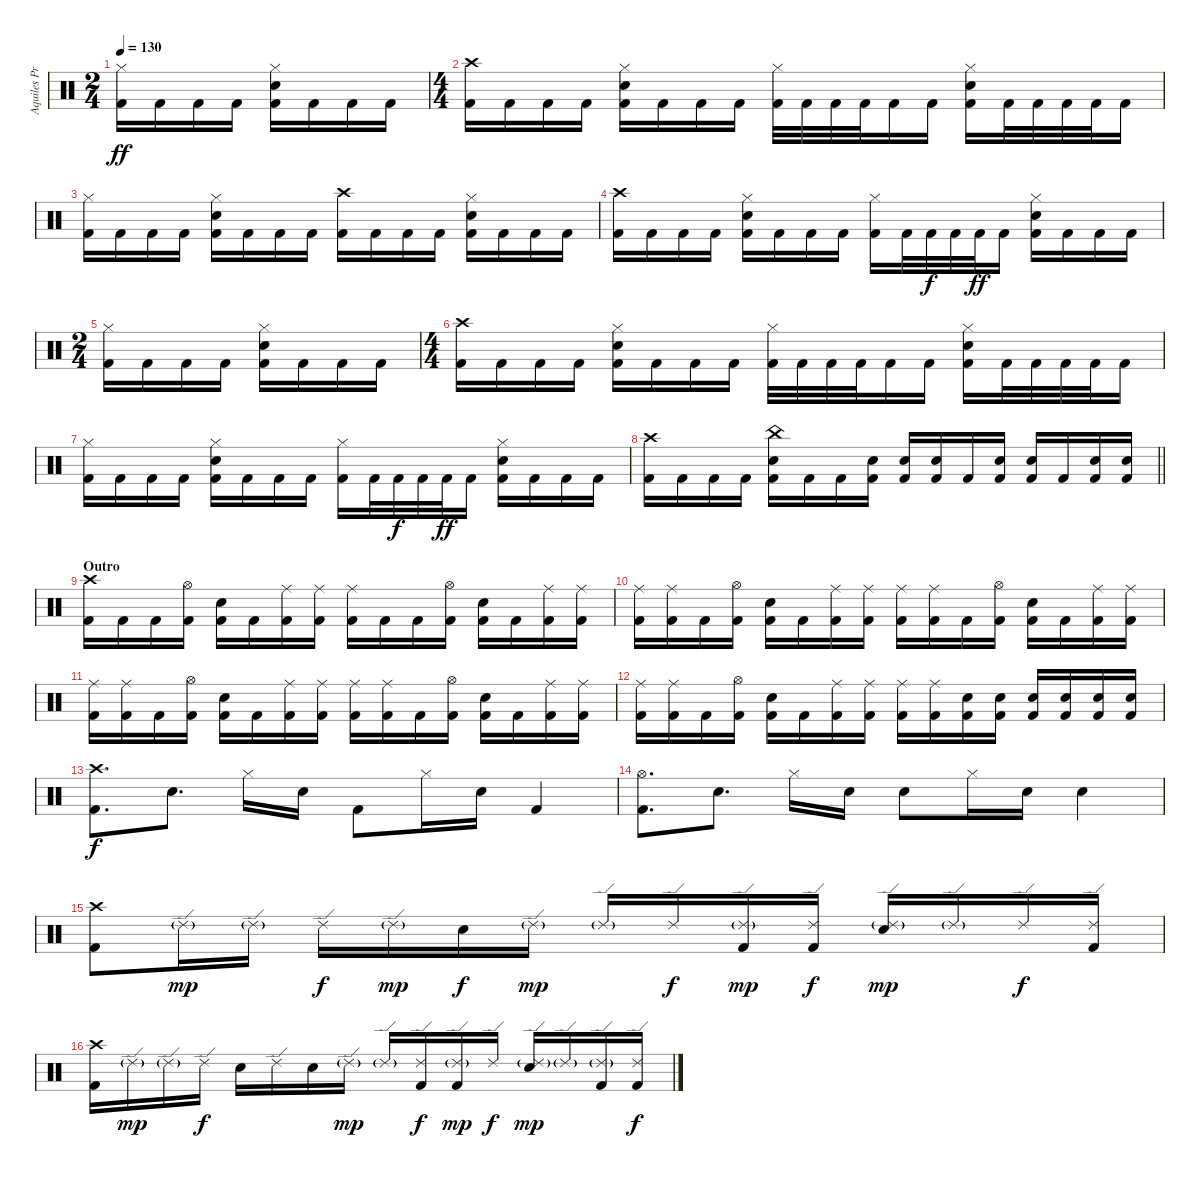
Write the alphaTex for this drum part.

\track ("Aquiles Priester" "Aquiles Pr") {instrument percussion}
\staff {score}
\articulation defaults
\ts (2 4)
\tempo 130
\clef neutral
\ks c
("Hi-Hat (closed)" "Kick (hit) 2").16{dy ff} "Kick (hit) 2".16 "Kick (hit) 2".16 "Kick (hit) 2".16 ("Hi-Hat (closed)" "Electric Snare (hit)" "Kick (hit) 2").16 "Kick (hit) 2".16 "Kick (hit) 2".16 "Kick (hit) 2".16 |
\ts (4 4)
("Crash high (hit)" "Kick (hit) 2").16 "Kick (hit) 2".16 "Kick (hit) 2".16 "Kick (hit) 2".16 ("Hi-Hat (closed)" "Electric Snare (hit)" "Kick (hit) 2").16 "Kick (hit) 2".16 "Kick (hit) 2".16 "Kick (hit) 2".16 ("Hi-Hat (closed)" "Kick (hit) 2").32 "Kick (hit) 2".32 "Kick (hit) 2".32 "Kick (hit) 2".32 "Kick (hit) 2".16 "Kick (hit) 2".16 ("Hi-Hat (closed)" "Electric Snare (hit)" "Kick (hit) 2").16 "Kick (hit) 2".32 "Kick (hit) 2".32 "Kick (hit) 2".32 "Kick (hit) 2".32 "Kick (hit) 2".16 |
("Hi-Hat (closed)" "Kick (hit) 2").16 "Kick (hit) 2".16 "Kick (hit) 2".16 "Kick (hit) 2".16 ("Hi-Hat (closed)" "Electric Snare (hit)" "Kick (hit) 2").16 "Kick (hit) 2".16 "Kick (hit) 2".16 "Kick (hit) 2".16 ("Crash high (hit)" "Kick (hit) 2").16 "Kick (hit) 2".16 "Kick (hit) 2".16 "Kick (hit) 2".16 ("Hi-Hat (closed)" "Electric Snare (hit)" "Kick (hit) 2").16 "Kick (hit) 2".16 "Kick (hit) 2".16 "Kick (hit) 2".16 |
("Crash high (hit)" "Kick (hit) 2").16 "Kick (hit) 2".16 "Kick (hit) 2".16 "Kick (hit) 2".16 ("Hi-Hat (closed)" "Electric Snare (hit)" "Kick (hit) 2").16 "Kick (hit) 2".16 "Kick (hit) 2".16 "Kick (hit) 2".16 ("Hi-Hat (closed)" "Kick (hit) 2").16 "Kick (hit) 2".32 "Kick (hit) 2".32{dy f} "Kick (hit) 2".32 "Kick (hit) 2".32{dy ff} "Kick (hit) 2".16 ("Hi-Hat (closed)" "Electric Snare (hit)" "Kick (hit) 2").16 "Kick (hit) 2".16 "Kick (hit) 2".16 "Kick (hit) 2".16 |
\ts (2 4)
("Hi-Hat (closed)" "Kick (hit) 2").16 "Kick (hit) 2".16 "Kick (hit) 2".16 "Kick (hit) 2".16 ("Hi-Hat (closed)" "Electric Snare (hit)" "Kick (hit) 2").16 "Kick (hit) 2".16 "Kick (hit) 2".16 "Kick (hit) 2".16 |
\ts (4 4)
("Crash high (hit)" "Kick (hit) 2").16 "Kick (hit) 2".16 "Kick (hit) 2".16 "Kick (hit) 2".16 ("Hi-Hat (closed)" "Electric Snare (hit)" "Kick (hit) 2").16 "Kick (hit) 2".16 "Kick (hit) 2".16 "Kick (hit) 2".16 ("Hi-Hat (closed)" "Kick (hit) 2").32 "Kick (hit) 2".32 "Kick (hit) 2".32 "Kick (hit) 2".32 "Kick (hit) 2".16 "Kick (hit) 2".16 ("Hi-Hat (closed)" "Electric Snare (hit)" "Kick (hit) 2").16 "Kick (hit) 2".32 "Kick (hit) 2".32 "Kick (hit) 2".32 "Kick (hit) 2".32 "Kick (hit) 2".16 |
("Hi-Hat (closed)" "Kick (hit) 2").16 "Kick (hit) 2".16 "Kick (hit) 2".16 "Kick (hit) 2".16 ("Hi-Hat (closed)" "Electric Snare (hit)" "Kick (hit) 2").16 "Kick (hit) 2".16 "Kick (hit) 2".16 "Kick (hit) 2".16 ("Hi-Hat (closed)" "Kick (hit) 2").16 "Kick (hit) 2".32 "Kick (hit) 2".32{dy f} "Kick (hit) 2".32 "Kick (hit) 2".32{dy ff} "Kick (hit) 2".16 ("Hi-Hat (closed)" "Electric Snare (hit)" "Kick (hit) 2").16 "Kick (hit) 2".16 "Kick (hit) 2".16 "Kick (hit) 2".16 |
\barLineRight lightlight
("Crash high (hit)" "Kick (hit) 2").16 "Kick (hit) 2".16 "Kick (hit) 2".16 "Kick (hit) 2".16 ("China (hit)" "Electric Snare (hit)" "Kick (hit) 2").16 "Kick (hit) 2".16 "Kick (hit) 2".16 ("Electric Snare (hit)" "Kick (hit) 2").16 ("Electric Snare (hit)" "Kick (hit) 2").16 ("Electric Snare (hit)" "Kick (hit) 2").16 "Kick (hit) 2".16 ("Electric Snare (hit)" "Kick (hit) 2").16 ("Electric Snare (hit)" "Kick (hit) 2").16 "Kick (hit) 2".16 ("Electric Snare (hit)" "Kick (hit) 2").16 ("Electric Snare (hit)" "Kick (hit) 2").16 |
\section ("" "Outro")
("Crash high (hit)" "Kick (hit) 2").16 "Kick (hit) 2".16 "Kick (hit) 2".16 ("Hi-Hat (open)" "Kick (hit) 2").16 ("Electric Snare (hit)" "Kick (hit) 2").16 "Kick (hit) 2".16 ("Ride (middle)" "Kick (hit) 2").16 ("Ride (middle)" "Kick (hit) 2").16 ("Ride (middle)" "Kick (hit) 2").16 "Kick (hit) 2".16 "Kick (hit) 2".16 ("Hi-Hat (open)" "Kick (hit) 2").16 ("Electric Snare (hit)" "Kick (hit) 2").16 "Kick (hit) 2".16 ("Ride (middle)" "Kick (hit) 2").16 ("Ride (middle)" "Kick (hit) 2").16 |
("Ride (middle)" "Kick (hit) 2").16 ("Ride (middle)" "Kick (hit) 2").16 "Kick (hit) 2".16 ("Hi-Hat (open)" "Kick (hit) 2").16 ("Electric Snare (hit)" "Kick (hit) 2").16 "Kick (hit) 2".16 ("Ride (middle)" "Kick (hit) 2").16 ("Ride (middle)" "Kick (hit) 2").16 ("Ride (middle)" "Kick (hit) 2").16 ("Ride (middle)" "Kick (hit) 2").16 "Kick (hit) 2".16 ("Hi-Hat (open)" "Kick (hit) 2").16 ("Electric Snare (hit)" "Kick (hit) 2").16 "Kick (hit) 2".16 ("Ride (middle)" "Kick (hit) 2").16 ("Ride (middle)" "Kick (hit) 2").16 |
("Ride (middle)" "Kick (hit) 2").16 ("Ride (middle)" "Kick (hit) 2").16 "Kick (hit) 2".16 ("Hi-Hat (open)" "Kick (hit) 2").16 ("Electric Snare (hit)" "Kick (hit) 2").16 "Kick (hit) 2".16 ("Ride (middle)" "Kick (hit) 2").16 ("Ride (middle)" "Kick (hit) 2").16 ("Ride (middle)" "Kick (hit) 2").16 ("Ride (middle)" "Kick (hit) 2").16 "Kick (hit) 2".16 ("Hi-Hat (open)" "Kick (hit) 2").16 ("Electric Snare (hit)" "Kick (hit) 2").16 "Kick (hit) 2".16 ("Ride (middle)" "Kick (hit) 2").16 ("Ride (middle)" "Kick (hit) 2").16 |
("Ride (middle)" "Kick (hit) 2").16 ("Ride (middle)" "Kick (hit) 2").16 "Kick (hit) 2".16 ("Hi-Hat (open)" "Kick (hit) 2").16 ("Electric Snare (hit)" "Kick (hit) 2").16 "Kick (hit) 2".16 ("Ride (middle)" "Kick (hit) 2").16 ("Ride (middle)" "Kick (hit) 2").16 ("Ride (middle)" "Kick (hit) 2").16 ("Ride (middle)" "Kick (hit) 2").16 ("Electric Snare (hit)" "Kick (hit) 2").16 ("Electric Snare (hit)" "Kick (hit) 2").16 ("Electric Snare (hit)" "Kick (hit) 2").16 ("Electric Snare (hit)" "Kick (hit) 2").16 ("Electric Snare (hit)" "Kick (hit) 2").16 ("Electric Snare (hit)" "Kick (hit) 2").16 |
("Crash high (hit)" "Kick (hit) 2").8{d dy f} "Electric Snare (hit)".8{d} "Hi-Hat (closed)".16 "Electric Snare (hit)".16 "Kick (hit) 2".8 "Hi-Hat (closed)".16 "Electric Snare (hit)".16 "Kick (hit) 2".4 |
("Hi-Hat (open)" "Kick (hit) 2").8{d} "Electric Snare (hit)".8{d} "Hi-Hat (closed)".16 "Electric Snare (hit)".16 "Electric Snare (hit)".8 "Hi-Hat (closed)".16 "Electric Snare (hit)".16 "Electric Snare (hit)".4 |
("Crash high (hit)" "Kick (hit) 2").8 "Ride (edge) 2"{g}.16{dy mp} "Ride (edge) 2"{g}.16 "Ride (edge) 2".16{dy f} "Ride (edge) 2"{g}.16{dy mp} "Electric Snare (hit)".16{dy f} "Ride (edge) 2"{g}.16{dy mp} "Ride (edge) 2"{g}.16 "Ride (edge) 2".16{dy f} ("Ride (edge) 2"{g} "Kick (hit) 2").16{dy mp} ("Ride (edge) 2" "Kick (hit) 2").16{dy f} ("Ride (edge) 2"{g} "Electric Snare (hit)").16{dy mp} "Ride (edge) 2"{g}.16 "Ride (edge) 2".16{dy f} ("Ride (edge) 2" "Kick (hit) 2").16 |
("Crash high (hit)" "Kick (hit) 2").16 "Ride (edge) 2"{g}.16{dy mp} "Ride (edge) 2"{g}.16 "Ride (edge) 2".16{dy f} "Electric Snare (hit)".16 "Ride (edge) 2".16 "Electric Snare (hit)".16 "Ride (edge) 2"{g}.16{dy mp} "Ride (edge) 2"{g}.16 ("Ride (edge) 2" "Kick (hit) 2").16{dy f} ("Ride (edge) 2"{g} "Kick (hit) 2").16{dy mp} "Ride (edge) 2".16{dy f} ("Ride (edge) 2"{g} "Electric Snare (hit)").16{dy mp} "Ride (edge) 2"{g}.16 ("Ride (edge) 2"{g} "Kick (hit) 2").16 ("Ride (edge) 2" "Kick (hit) 2").16{dy f}
